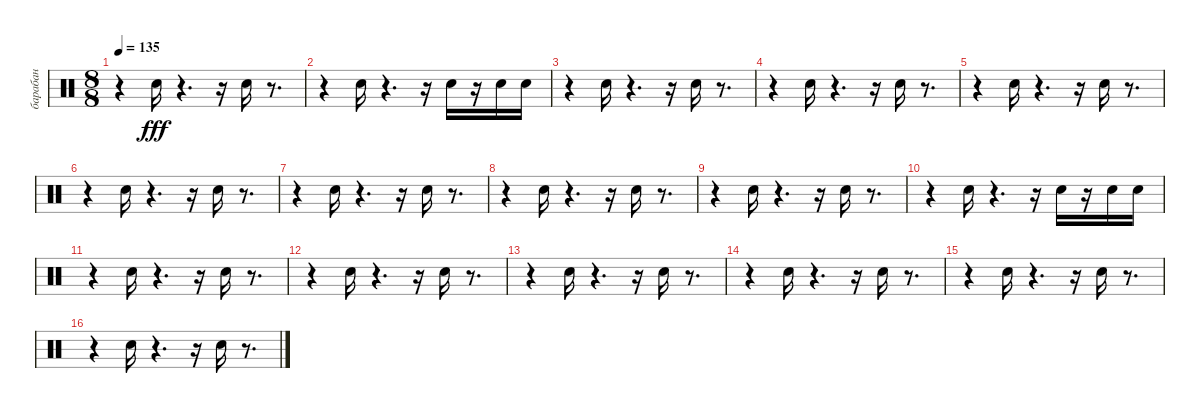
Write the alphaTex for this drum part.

\track ("барабан" "барабан") {instrument percussion}
\staff {score}
\articulation defaults
\ts (8 8)
\tempo 135
\clef neutral
\ks c
r.4{dy fff} "Snare (hit) 2".16 r.4{d} r.16 "Snare (hit) 2".16 r.8{d} |
r.4 "Snare (hit) 2".16 r.4{d} r.16 "Snare (hit) 2".16 r.16 "Snare (hit) 2".16 "Snare (hit) 2".16 |
r.4 "Snare (hit) 2".16 r.4{d} r.16 "Snare (hit) 2".16 r.8{d} |
r.4 "Snare (hit) 2".16 r.4{d} r.16 "Snare (hit) 2".16 r.8{d} |
r.4 "Snare (hit) 2".16 r.4{d} r.16 "Snare (hit) 2".16 r.8{d} |
r.4 "Snare (hit) 2".16 r.4{d} r.16 "Snare (hit) 2".16 r.8{d} |
r.4 "Snare (hit) 2".16 r.4{d} r.16 "Snare (hit) 2".16 r.8{d} |
r.4 "Snare (hit) 2".16 r.4{d} r.16 "Snare (hit) 2".16 r.8{d} |
r.4 "Snare (hit) 2".16 r.4{d} r.16 "Snare (hit) 2".16 r.8{d} |
r.4 "Snare (hit) 2".16 r.4{d} r.16 "Snare (hit) 2".16 r.16 "Snare (hit) 2".16 "Snare (hit) 2".16 |
r.4 "Snare (hit) 2".16 r.4{d} r.16 "Snare (hit) 2".16 r.8{d} |
r.4 "Snare (hit) 2".16 r.4{d} r.16 "Snare (hit) 2".16 r.8{d} |
r.4 "Snare (hit) 2".16 r.4{d} r.16 "Snare (hit) 2".16 r.8{d} |
r.4 "Snare (hit) 2".16 r.4{d} r.16 "Snare (hit) 2".16 r.8{d} |
r.4 "Snare (hit) 2".16 r.4{d} r.16 "Snare (hit) 2".16 r.8{d} |
r.4 "Snare (hit) 2".16 r.4{d} r.16 "Snare (hit) 2".16 r.8{d}
